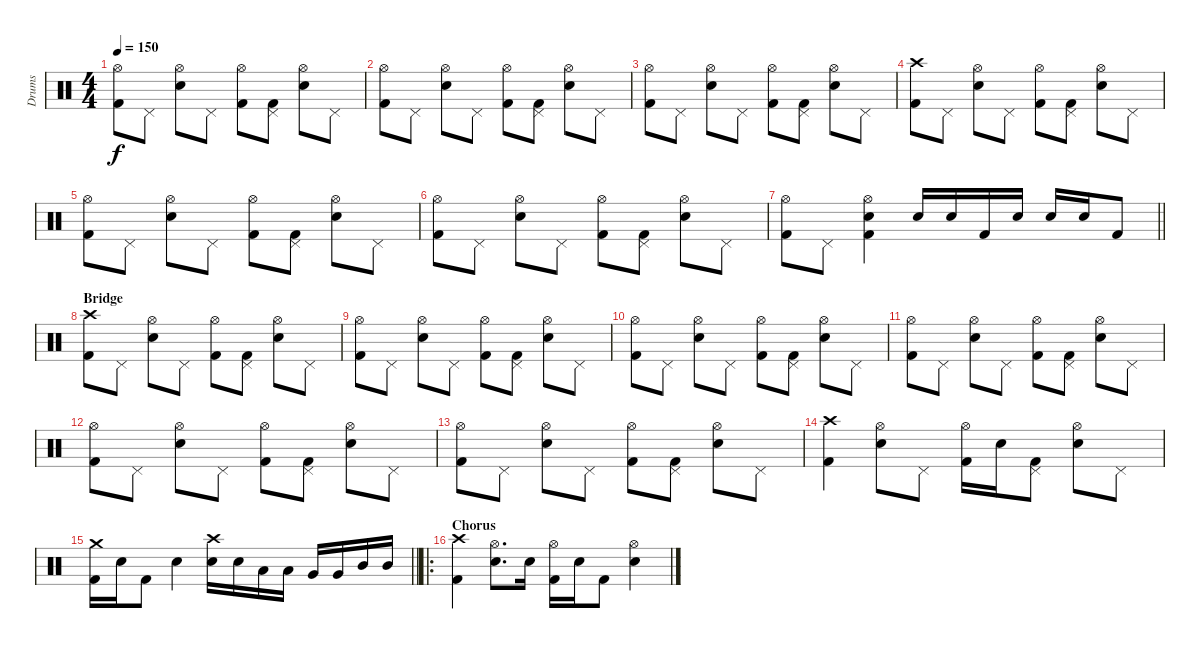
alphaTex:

\track ("Drums" "Drums") {instrument percussion}
\staff {score}
\articulation defaults
\ts (4 4)
\tempo 150
\clef neutral
\ks c
("Hi-Hat (open)" "Kick (hit) 2").8{dy f} "Pedal Hi-Hat (hit)".8 ("Hi-Hat (open)" "Snare (hit) 2").8 "Pedal Hi-Hat (hit)".8 ("Hi-Hat (open)" "Kick (hit) 2").8 ("Pedal Hi-Hat (hit)" "Kick (hit) 2").8 ("Hi-Hat (open)" "Snare (hit) 2").8 "Pedal Hi-Hat (hit)".8 |
("Hi-Hat (open)" "Kick (hit) 2").8 "Pedal Hi-Hat (hit)".8 ("Hi-Hat (open)" "Snare (hit) 2").8 "Pedal Hi-Hat (hit)".8 ("Hi-Hat (open)" "Kick (hit) 2").8 ("Pedal Hi-Hat (hit)" "Kick (hit) 2").8 ("Hi-Hat (open)" "Snare (hit) 2").8 "Pedal Hi-Hat (hit)".8 |
("Hi-Hat (open)" "Kick (hit) 2").8 "Pedal Hi-Hat (hit)".8 ("Hi-Hat (open)" "Snare (hit) 2").8 "Pedal Hi-Hat (hit)".8 ("Hi-Hat (open)" "Kick (hit) 2").8 ("Pedal Hi-Hat (hit)" "Kick (hit) 2").8 ("Hi-Hat (open)" "Snare (hit) 2").8 "Pedal Hi-Hat (hit)".8 |
("Crash high (hit)" "Kick (hit) 2").8 "Pedal Hi-Hat (hit)".8 ("Hi-Hat (open)" "Snare (hit) 2").8 "Pedal Hi-Hat (hit)".8 ("Hi-Hat (open)" "Kick (hit) 2").8 ("Pedal Hi-Hat (hit)" "Kick (hit) 2").8 ("Hi-Hat (open)" "Snare (hit) 2").8 "Pedal Hi-Hat (hit)".8 |
("Hi-Hat (open)" "Kick (hit) 2").8 "Pedal Hi-Hat (hit)".8 ("Hi-Hat (open)" "Snare (hit) 2").8 "Pedal Hi-Hat (hit)".8 ("Hi-Hat (open)" "Kick (hit) 2").8 ("Pedal Hi-Hat (hit)" "Kick (hit) 2").8 ("Hi-Hat (open)" "Snare (hit) 2").8 "Pedal Hi-Hat (hit)".8 |
("Hi-Hat (open)" "Kick (hit) 2").8 "Pedal Hi-Hat (hit)".8 ("Hi-Hat (open)" "Snare (hit) 2").8 "Pedal Hi-Hat (hit)".8 ("Hi-Hat (open)" "Kick (hit) 2").8 ("Pedal Hi-Hat (hit)" "Kick (hit) 2").8 ("Hi-Hat (open)" "Snare (hit) 2").8 "Pedal Hi-Hat (hit)".8 |
\barLineRight lightlight
("Hi-Hat (open)" "Kick (hit) 2").8 "Pedal Hi-Hat (hit)".8 ("Hi-Hat (open)" "Snare (hit) 2" "Kick (hit) 2").4 "Snare (hit) 2".16 "Snare (hit) 2".16 "Kick (hit) 2".16 "Snare (hit) 2".16 "Snare (hit) 2".16 "Snare (hit) 2".16 "Kick (hit) 2".8 |
\section ("" "Bridge")
("Crash high (hit)" "Kick (hit) 2").8 "Pedal Hi-Hat (hit)".8 ("Hi-Hat (open)" "Snare (hit) 2").8 "Pedal Hi-Hat (hit)".8 ("Hi-Hat (open)" "Kick (hit) 2").8 ("Pedal Hi-Hat (hit)" "Kick (hit) 2").8 ("Hi-Hat (open)" "Snare (hit) 2").8 "Pedal Hi-Hat (hit)".8 |
("Hi-Hat (open)" "Kick (hit) 2").8 "Pedal Hi-Hat (hit)".8 ("Hi-Hat (open)" "Snare (hit) 2").8 "Pedal Hi-Hat (hit)".8 ("Hi-Hat (open)" "Kick (hit) 2").8 ("Pedal Hi-Hat (hit)" "Kick (hit) 2").8 ("Hi-Hat (open)" "Snare (hit) 2").8 "Pedal Hi-Hat (hit)".8 |
("Hi-Hat (open)" "Kick (hit) 2").8 "Pedal Hi-Hat (hit)".8 ("Hi-Hat (open)" "Snare (hit) 2").8 "Pedal Hi-Hat (hit)".8 ("Hi-Hat (open)" "Kick (hit) 2").8 ("Pedal Hi-Hat (hit)" "Kick (hit) 2").8 ("Hi-Hat (open)" "Snare (hit) 2").8 "Pedal Hi-Hat (hit)".8 |
("Hi-Hat (open)" "Kick (hit) 2").8 "Pedal Hi-Hat (hit)".8 ("Hi-Hat (open)" "Snare (hit) 2").8 "Pedal Hi-Hat (hit)".8 ("Hi-Hat (open)" "Kick (hit) 2").8 ("Pedal Hi-Hat (hit)" "Kick (hit) 2").8 ("Hi-Hat (open)" "Snare (hit) 2").8 "Pedal Hi-Hat (hit)".8 |
("Hi-Hat (open)" "Kick (hit) 2").8 "Pedal Hi-Hat (hit)".8 ("Hi-Hat (open)" "Snare (hit) 2").8 "Pedal Hi-Hat (hit)".8 ("Hi-Hat (open)" "Kick (hit) 2").8 ("Pedal Hi-Hat (hit)" "Kick (hit) 2").8 ("Hi-Hat (open)" "Snare (hit) 2").8 "Pedal Hi-Hat (hit)".8 |
("Hi-Hat (open)" "Kick (hit) 2").8 "Pedal Hi-Hat (hit)".8 ("Hi-Hat (open)" "Snare (hit) 2").8 "Pedal Hi-Hat (hit)".8 ("Hi-Hat (open)" "Kick (hit) 2").8 ("Pedal Hi-Hat (hit)" "Kick (hit) 2").8 ("Hi-Hat (open)" "Snare (hit) 2").8 "Pedal Hi-Hat (hit)".8 |
("Crash high (hit)" "Kick (hit) 2").4 ("Hi-Hat (open)" "Snare (hit) 2").8 "Pedal Hi-Hat (hit)".8 ("Hi-Hat (open)" "Kick (hit) 2").16 "Snare (hit) 2".16 ("Pedal Hi-Hat (hit)" "Kick (hit) 2").8 ("Hi-Hat (open)" "Snare (hit) 2").8 "Pedal Hi-Hat (hit)".8 |
\barLineRight lightlight
("Crash medium (hit)" "Kick (hit) 2").16 "Snare (hit) 2".16 "Kick (hit) 2".8 "Snare (hit) 2".4 ("Crash high (hit)" "Snare (hit) 2").16 "Snare (hit) 2".16 "Low Tom (hit)".16 "Low Tom (hit)".16 "Very Low Tom (hit)".16 "Very Low Tom (hit)".16 "Mid Tom (hit)".16 "Mid Tom (hit)".16 |
\ro
\section ("" "Chorus")
("Crash high (hit)" "Kick (hit) 2").4 ("Hi-Hat (open)" "Snare (hit) 2").8{d} "Snare (hit) 2".16 ("Hi-Hat (open)" "Kick (hit) 2").16 "Snare (hit) 2".16 "Kick (hit) 2".8 ("Hi-Hat (open)" "Snare (hit) 2").4
